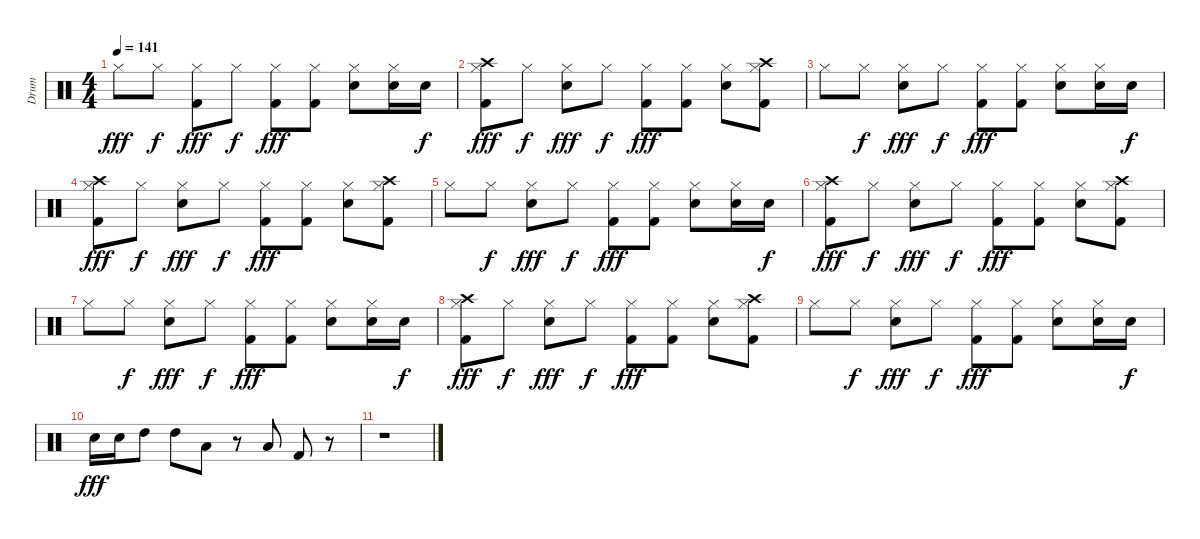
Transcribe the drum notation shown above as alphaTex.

\track ("Drum" "Drum") {instrument percussion}
\staff {score}
\articulation defaults
\ts (4 4)
\tempo 141
\clef neutral
\ks c "Hi-Hat (closed)".8{dy fff} "Hi-Hat (closed)".8{dy f}
("Hi-Hat (closed)" "Kick (hit) 2").8{dy fff} "Hi-Hat (closed)".8{dy f} ("Hi-Hat (closed)" "Kick (hit) 2").8{dy fff} ("Hi-Hat (closed)" "Kick (hit) 2").8 ("Hi-Hat (closed)" "Snare (hit) 2").8 ("Hi-Hat (closed)" "Snare (hit) 2").16 "Snare (hit) 2".16{dy f} |
("Kick (hit) 2" "Hi-Hat (closed)" "Crash high (hit)").8{dy fff} "Hi-Hat (closed)".8{dy f} ("Snare (hit) 2" "Hi-Hat (closed)").8{dy fff} "Hi-Hat (closed)".8{dy f} ("Hi-Hat (closed)" "Kick (hit) 2").8{dy fff} ("Kick (hit) 2" "Hi-Hat (closed)").8 ("Snare (hit) 2" "Hi-Hat (closed)").8 ("Kick (hit) 2" "Hi-Hat (closed)" "Crash high (hit)").8 |
"Hi-Hat (closed)".8 "Hi-Hat (closed)".8{dy f} ("Hi-Hat (closed)" "Snare (hit) 2").8{dy fff} "Hi-Hat (closed)".8{dy f} ("Hi-Hat (closed)" "Kick (hit) 2").8{dy fff} ("Hi-Hat (closed)" "Kick (hit) 2").8 ("Hi-Hat (closed)" "Snare (hit) 2").8 ("Hi-Hat (closed)" "Snare (hit) 2").16 "Snare (hit) 2".16{dy f} |
("Kick (hit) 2" "Hi-Hat (closed)" "Crash high (hit)").8{dy fff} "Hi-Hat (closed)".8{dy f} ("Snare (hit) 2" "Hi-Hat (closed)").8{dy fff} "Hi-Hat (closed)".8{dy f} ("Hi-Hat (closed)" "Kick (hit) 2").8{dy fff} ("Kick (hit) 2" "Hi-Hat (closed)").8 ("Snare (hit) 2" "Hi-Hat (closed)").8 ("Kick (hit) 2" "Hi-Hat (closed)" "Crash high (hit)").8 |
"Hi-Hat (closed)".8 "Hi-Hat (closed)".8{dy f} ("Hi-Hat (closed)" "Snare (hit) 2").8{dy fff} "Hi-Hat (closed)".8{dy f} ("Hi-Hat (closed)" "Kick (hit) 2").8{dy fff} ("Hi-Hat (closed)" "Kick (hit) 2").8 ("Hi-Hat (closed)" "Snare (hit) 2").8 ("Hi-Hat (closed)" "Snare (hit) 2").16 "Snare (hit) 2".16{dy f} |
("Kick (hit) 2" "Hi-Hat (closed)" "Crash high (hit)").8{dy fff} "Hi-Hat (closed)".8{dy f} ("Snare (hit) 2" "Hi-Hat (closed)").8{dy fff} "Hi-Hat (closed)".8{dy f} ("Hi-Hat (closed)" "Kick (hit) 2").8{dy fff} ("Kick (hit) 2" "Hi-Hat (closed)").8 ("Snare (hit) 2" "Hi-Hat (closed)").8 ("Kick (hit) 2" "Hi-Hat (closed)" "Crash high (hit)").8 |
"Hi-Hat (closed)".8 "Hi-Hat (closed)".8{dy f} ("Hi-Hat (closed)" "Snare (hit) 2").8{dy fff} "Hi-Hat (closed)".8{dy f} ("Hi-Hat (closed)" "Kick (hit) 2").8{dy fff} ("Hi-Hat (closed)" "Kick (hit) 2").8 ("Hi-Hat (closed)" "Snare (hit) 2").8 ("Hi-Hat (closed)" "Snare (hit) 2").16 "Snare (hit) 2".16{dy f} |
("Kick (hit) 2" "Hi-Hat (closed)" "Crash high (hit)").8{dy fff} "Hi-Hat (closed)".8{dy f} ("Snare (hit) 2" "Hi-Hat (closed)").8{dy fff} "Hi-Hat (closed)".8{dy f} ("Hi-Hat (closed)" "Kick (hit) 2").8{dy fff} ("Kick (hit) 2" "Hi-Hat (closed)").8 ("Snare (hit) 2" "Hi-Hat (closed)").8 ("Kick (hit) 2" "Hi-Hat (closed)" "Crash high (hit)").8 |
"Hi-Hat (closed)".8 "Hi-Hat (closed)".8{dy f} ("Hi-Hat (closed)" "Snare (hit) 2").8{dy fff} "Hi-Hat (closed)".8{dy f} ("Hi-Hat (closed)" "Kick (hit) 2").8{dy fff} ("Hi-Hat (closed)" "Kick (hit) 2").8 ("Hi-Hat (closed)" "Snare (hit) 2").8 ("Hi-Hat (closed)" "Snare (hit) 2").16 "Snare (hit) 2".16{dy f} |
"Snare (hit) 2".16{dy fff} "Snare (hit) 2".16 "High Tom (hit)".8 "High Tom (hit)".8 "Low Tom (hit)".8 r.8 "Low Floor Tom (hit)".8 "Kick (hit) 2".8 r.8 |
r.1
